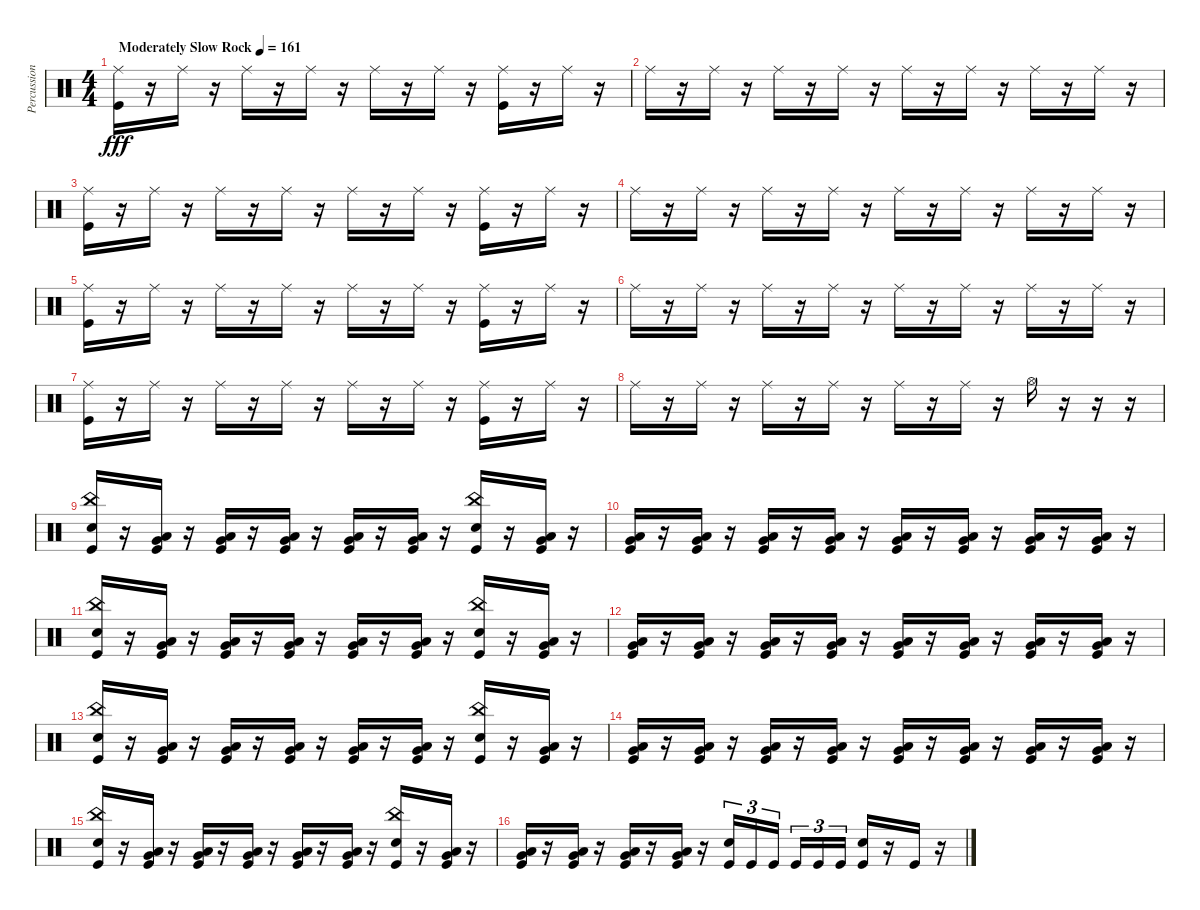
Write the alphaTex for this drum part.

\track ("Percussion" "Percussion") {instrument percussion}
\staff {score}
\articulation defaults
\ts (4 4)
\tempo (161 "Moderately Slow Rock")
\clef neutral
\ks c
("Ride (middle)" "Kick (hit)").16{dy fff} r.16 "Ride (middle)".16 r.16 "Ride (middle)".16 r.16 "Ride (middle)".16 r.16 "Ride (middle)".16 r.16 "Ride (middle)".16 r.16 ("Ride (middle)" "Kick (hit)").16 r.16 "Ride (middle)".16 r.16 |
"Ride (middle)".16 r.16 "Ride (middle)".16 r.16 "Ride (middle)".16 r.16 "Ride (middle)".16 r.16 "Ride (middle)".16 r.16 "Ride (middle)".16 r.16 "Ride (middle)".16 r.16 "Ride (middle)".16 r.16 |
("Ride (middle)" "Kick (hit)").16 r.16 "Ride (middle)".16 r.16 "Ride (middle)".16 r.16 "Ride (middle)".16 r.16 "Ride (middle)".16 r.16 "Ride (middle)".16 r.16 ("Ride (middle)" "Kick (hit)").16 r.16 "Ride (middle)".16 r.16 |
"Ride (middle)".16 r.16 "Ride (middle)".16 r.16 "Ride (middle)".16 r.16 "Ride (middle)".16 r.16 "Ride (middle)".16 r.16 "Ride (middle)".16 r.16 "Ride (middle)".16 r.16 "Ride (middle)".16 r.16 |
("Ride (middle)" "Kick (hit)").16 r.16 "Ride (middle)".16 r.16 "Ride (middle)".16 r.16 "Ride (middle)".16 r.16 "Ride (middle)".16 r.16 "Ride (middle)".16 r.16 ("Ride (middle)" "Kick (hit)").16 r.16 "Ride (middle)".16 r.16 |
"Ride (middle)".16 r.16 "Ride (middle)".16 r.16 "Ride (middle)".16 r.16 "Ride (middle)".16 r.16 "Ride (middle)".16 r.16 "Ride (middle)".16 r.16 "Ride (middle)".16 r.16 "Ride (middle)".16 r.16 |
("Ride (middle)" "Kick (hit)").16 r.16 "Ride (middle)".16 r.16 "Ride (middle)".16 r.16 "Ride (middle)".16 r.16 "Ride (middle)".16 r.16 "Ride (middle)".16 r.16 ("Ride (middle)" "Kick (hit)").16 r.16 "Ride (middle)".16 r.16 |
"Ride (middle)".16 r.16 "Ride (middle)".16 r.16 "Ride (middle)".16 r.16 "Ride (middle)".16 r.16 "Ride (middle)".16 r.16 "Ride (middle)".16 r.16 "Hi-Hat (open)".16 r.16 r.16 r.16 |
("China (hit)" "Electric Snare (hit)" "Kick (hit)").16 r.16 ("Very Low Tom (hit)" "Low Tom (hit)" "Kick (hit)").16 r.16 ("Very Low Tom (hit)" "Low Tom (hit)" "Kick (hit)").16 r.16 ("Very Low Tom (hit)" "Low Tom (hit)" "Kick (hit)").16 r.16 ("Very Low Tom (hit)" "Low Tom (hit)" "Kick (hit)").16 r.16 ("Very Low Tom (hit)" "Low Tom (hit)" "Kick (hit)").16 r.16 ("China (hit)" "Electric Snare (hit)" "Kick (hit)").16 r.16 ("Very Low Tom (hit)" "Low Tom (hit)" "Kick (hit)").16 r.16 |
("Very Low Tom (hit)" "Low Tom (hit)" "Kick (hit)").16 r.16 ("Very Low Tom (hit)" "Low Tom (hit)" "Kick (hit)").16 r.16 ("Very Low Tom (hit)" "Low Tom (hit)" "Kick (hit)").16 r.16 ("Very Low Tom (hit)" "Low Tom (hit)" "Kick (hit)").16 r.16 ("Very Low Tom (hit)" "Low Tom (hit)" "Kick (hit)").16 r.16 ("Very Low Tom (hit)" "Low Tom (hit)" "Kick (hit)").16 r.16 ("Very Low Tom (hit)" "Low Tom (hit)" "Kick (hit)").16 r.16 ("Very Low Tom (hit)" "Low Tom (hit)" "Kick (hit)").16 r.16 |
("China (hit)" "Electric Snare (hit)" "Kick (hit)").16 r.16 ("Very Low Tom (hit)" "Low Tom (hit)" "Kick (hit)").16 r.16 ("Very Low Tom (hit)" "Low Tom (hit)" "Kick (hit)").16 r.16 ("Very Low Tom (hit)" "Low Tom (hit)" "Kick (hit)").16 r.16 ("Very Low Tom (hit)" "Low Tom (hit)" "Kick (hit)").16 r.16 ("Very Low Tom (hit)" "Low Tom (hit)" "Kick (hit)").16 r.16 ("China (hit)" "Electric Snare (hit)" "Kick (hit)").16 r.16 ("Very Low Tom (hit)" "Low Tom (hit)" "Kick (hit)").16 r.16 |
("Very Low Tom (hit)" "Low Tom (hit)" "Kick (hit)").16 r.16 ("Very Low Tom (hit)" "Low Tom (hit)" "Kick (hit)").16 r.16 ("Very Low Tom (hit)" "Low Tom (hit)" "Kick (hit)").16 r.16 ("Very Low Tom (hit)" "Low Tom (hit)" "Kick (hit)").16 r.16 ("Very Low Tom (hit)" "Low Tom (hit)" "Kick (hit)").16 r.16 ("Very Low Tom (hit)" "Low Tom (hit)" "Kick (hit)").16 r.16 ("Very Low Tom (hit)" "Low Tom (hit)" "Kick (hit)").16 r.16 ("Very Low Tom (hit)" "Low Tom (hit)" "Kick (hit)").16 r.16 |
("China (hit)" "Electric Snare (hit)" "Kick (hit)").16 r.16 ("Very Low Tom (hit)" "Low Tom (hit)" "Kick (hit)").16 r.16 ("Very Low Tom (hit)" "Low Tom (hit)" "Kick (hit)").16 r.16 ("Very Low Tom (hit)" "Low Tom (hit)" "Kick (hit)").16 r.16 ("Very Low Tom (hit)" "Low Tom (hit)" "Kick (hit)").16 r.16 ("Very Low Tom (hit)" "Low Tom (hit)" "Kick (hit)").16 r.16 ("China (hit)" "Electric Snare (hit)" "Kick (hit)").16 r.16 ("Very Low Tom (hit)" "Low Tom (hit)" "Kick (hit)").16 r.16 |
("Very Low Tom (hit)" "Low Tom (hit)" "Kick (hit)").16 r.16 ("Very Low Tom (hit)" "Low Tom (hit)" "Kick (hit)").16 r.16 ("Very Low Tom (hit)" "Low Tom (hit)" "Kick (hit)").16 r.16 ("Very Low Tom (hit)" "Low Tom (hit)" "Kick (hit)").16 r.16 ("Very Low Tom (hit)" "Low Tom (hit)" "Kick (hit)").16 r.16 ("Very Low Tom (hit)" "Low Tom (hit)" "Kick (hit)").16 r.16 ("Very Low Tom (hit)" "Low Tom (hit)" "Kick (hit)").16 r.16 ("Very Low Tom (hit)" "Low Tom (hit)" "Kick (hit)").16 r.16 |
("China (hit)" "Electric Snare (hit)" "Kick (hit)").16 r.16 ("Very Low Tom (hit)" "Low Tom (hit)" "Kick (hit)").16 r.16 ("Very Low Tom (hit)" "Low Tom (hit)" "Kick (hit)").16 r.16 ("Very Low Tom (hit)" "Low Tom (hit)" "Kick (hit)").16 r.16 ("Very Low Tom (hit)" "Low Tom (hit)" "Kick (hit)").16 r.16 ("Very Low Tom (hit)" "Low Tom (hit)" "Kick (hit)").16 r.16 ("China (hit)" "Electric Snare (hit)" "Kick (hit)").16 r.16 ("Very Low Tom (hit)" "Low Tom (hit)" "Kick (hit)").16 r.16 |
("Very Low Tom (hit)" "Low Tom (hit)" "Kick (hit)").16 r.16 ("Very Low Tom (hit)" "Low Tom (hit)" "Kick (hit)").16 r.16 ("Very Low Tom (hit)" "Low Tom (hit)" "Kick (hit)").16 r.16 ("Very Low Tom (hit)" "Low Tom (hit)" "Kick (hit)").16 r.16 ("Electric Snare (hit)" "Kick (hit)").16{tu (3 2)} "Kick (hit)".16{tu (3 2)} "Kick (hit)".16{tu (3 2)} "Kick (hit)".16{tu (3 2)} "Kick (hit)".16{tu (3 2)} "Kick (hit)".16{tu (3 2)} ("Electric Snare (hit)" "Kick (hit)").16 r.16 "Kick (hit)".16 r.16
